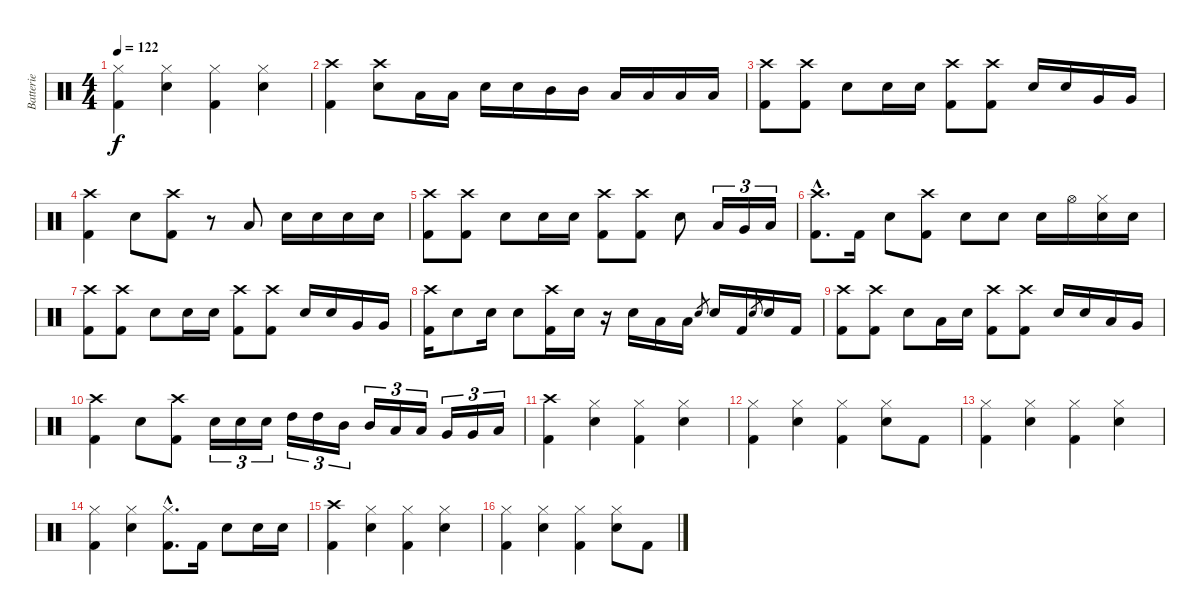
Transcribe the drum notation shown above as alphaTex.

\track ("Batterie" "Batterie") {instrument percussion}
\staff {score}
\articulation defaults
\ts (4 4)
\tempo 122
\clef neutral
\ks c
("Hi-Hat (closed)" "Kick (hit) 2").4{dy f} ("Hi-Hat (closed)" "Snare (hit) 2").4 ("Hi-Hat (closed)" "Kick (hit) 2").4 ("Hi-Hat (closed)" "Snare (hit) 2").4 |
("Crash high (hit)" "Kick (hit) 2").4 ("Crash high (hit)" "Snare (hit) 2").8 "Low Tom (hit)".16 "Low Tom (hit)".16 "Snare (hit) 2".16 "Snare (hit) 2".16 "Mid Tom (hit)".16 "Mid Tom (hit)".16 "Low Tom (hit)".16 "Low Tom (hit)".16 "Low Floor Tom (hit)".16 "Low Floor Tom (hit)".16 |
("Crash high (hit)" "Kick (hit) 2").8 ("Crash high (hit)" "Kick (hit) 2").8 "Snare (hit) 2".8 "Snare (hit) 2".16 "Snare (hit) 2".16 ("Crash high (hit)" "Kick (hit) 2").8 ("Crash high (hit)" "Kick (hit) 2").8 "Snare (hit) 2".16 "Snare (hit) 2".16 "Very Low Tom (hit)".16 "Very Low Tom (hit)".16 |
("Crash high (hit)" "Kick (hit) 2").4 "Snare (hit) 2".8 ("Crash high (hit)" "Kick (hit) 2").8 r.8 "Low Floor Tom (hit)".8 "Snare (hit) 2".16 "Snare (hit) 2".16 "Snare (hit) 2".16 "Snare (hit) 2".16 |
("Crash high (hit)" "Kick (hit) 2").8 ("Crash high (hit)" "Kick (hit) 2").8 "Snare (hit) 2".8 "Snare (hit) 2".16 "Snare (hit) 2".16 ("Crash high (hit)" "Kick (hit) 2").8 ("Crash high (hit)" "Kick (hit) 2").8 "Snare (hit) 2".8 "Low Tom (hit)".16{tu (3 2)} "Very Low Tom (hit)".16{tu (3 2)} "Low Floor Tom (hit)".16{tu (3 2)} |
("Crash high (hit)"{hac} "Kick (hit) 2"{hac}).8{d} "Kick (hit) 2".16 "Snare (hit) 2".8 ("Crash high (hit)" "Kick (hit) 2").8 "Snare (hit) 2".8 "Snare (hit) 2".8 "Snare (hit) 2".16 "Hi-Hat (open)".16 ("Hi-Hat (closed)" "Snare (hit) 2").16 "Snare (hit) 2".16 |
("Crash high (hit)" "Kick (hit) 2").8 ("Crash high (hit)" "Kick (hit) 2").8 "Snare (hit) 2".8 "Snare (hit) 2".16 "Snare (hit) 2".16 ("Crash high (hit)" "Kick (hit) 2").8 ("Crash high (hit)" "Kick (hit) 2").8 "Snare (hit) 2".16 "Snare (hit) 2".16 "Very Low Tom (hit)".16 "Very Low Tom (hit)".16 |
("Crash high (hit)" "Kick (hit) 2").16 "Snare (hit) 2".8 "Snare (hit) 2".16 "Snare (hit) 2".8 ("Crash high (hit)" "Kick (hit) 2").16 "Snare (hit) 2".16 r.16 "Snare (hit) 2".16 "Low Tom (hit)".16 "Low Floor Tom (hit)".16 "Snare (hit) 2".8{gr} "Snare (hit) 2".16 "Kick (hit) 2".16 "Snare (hit) 2".8{gr} "Snare (hit) 2".16 "Kick (hit) 2".16 |
("Crash high (hit)" "Kick (hit) 2").8 ("Crash high (hit)" "Kick (hit) 2").8 "Snare (hit) 2".8 "Low Floor Tom (hit)".16 "Snare (hit) 2".16 ("Crash high (hit)" "Kick (hit) 2").8 ("Crash high (hit)" "Kick (hit) 2").8 "Snare (hit) 2".16 "Snare (hit) 2".16 "Low Tom (hit)".16 "Very Low Tom (hit)".16 |
("Crash high (hit)" "Kick (hit) 2").4 "Snare (hit) 2".8 ("Crash high (hit)" "Kick (hit) 2").8 "Snare (hit) 2".16{tu (3 2)} "Snare (hit) 2".16{tu (3 2)} "Snare (hit) 2".16{tu (3 2)} "High Tom (hit)".16{tu (3 2)} "High Tom (hit)".16{tu (3 2)} "Mid Tom (hit)".16{tu (3 2)} "Mid Tom (hit)".16{tu (3 2)} "Low Tom (hit)".16{tu (3 2)} "Low Tom (hit)".16{tu (3 2)} "Very Low Tom (hit)".16{tu (3 2)} "Very Low Tom (hit)".16{tu (3 2)} "Low Floor Tom (hit)".16{tu (3 2)} |
("Crash high (hit)" "Kick (hit) 2").4 ("Hi-Hat (closed)" "Snare (hit) 2").4 ("Hi-Hat (closed)" "Kick (hit) 2").4 ("Hi-Hat (closed)" "Snare (hit) 2").4 |
("Hi-Hat (closed)" "Kick (hit) 2").4 ("Hi-Hat (closed)" "Snare (hit) 2").4 ("Hi-Hat (closed)" "Kick (hit) 2").4 ("Hi-Hat (closed)" "Snare (hit) 2").8 "Kick (hit) 2".8 |
("Hi-Hat (closed)" "Kick (hit) 2").4 ("Hi-Hat (closed)" "Snare (hit) 2").4 ("Hi-Hat (closed)" "Kick (hit) 2").4 ("Hi-Hat (closed)" "Snare (hit) 2").4 |
("Hi-Hat (closed)" "Kick (hit) 2").4 ("Hi-Hat (closed)" "Snare (hit) 2").4 ("Hi-Hat (closed)"{hac} "Kick (hit) 2"{hac}).8{d} "Kick (hit) 2".16 "Snare (hit) 2".8 "Snare (hit) 2".16 "Snare (hit) 2".16 |
("Crash high (hit)" "Kick (hit) 2").4 ("Hi-Hat (closed)" "Snare (hit) 2").4 ("Hi-Hat (closed)" "Kick (hit) 2").4 ("Hi-Hat (closed)" "Snare (hit) 2").4 |
("Hi-Hat (closed)" "Kick (hit) 2").4 ("Hi-Hat (closed)" "Snare (hit) 2").4 ("Hi-Hat (closed)" "Kick (hit) 2").4 ("Hi-Hat (closed)" "Snare (hit) 2").8 "Kick (hit) 2".8
